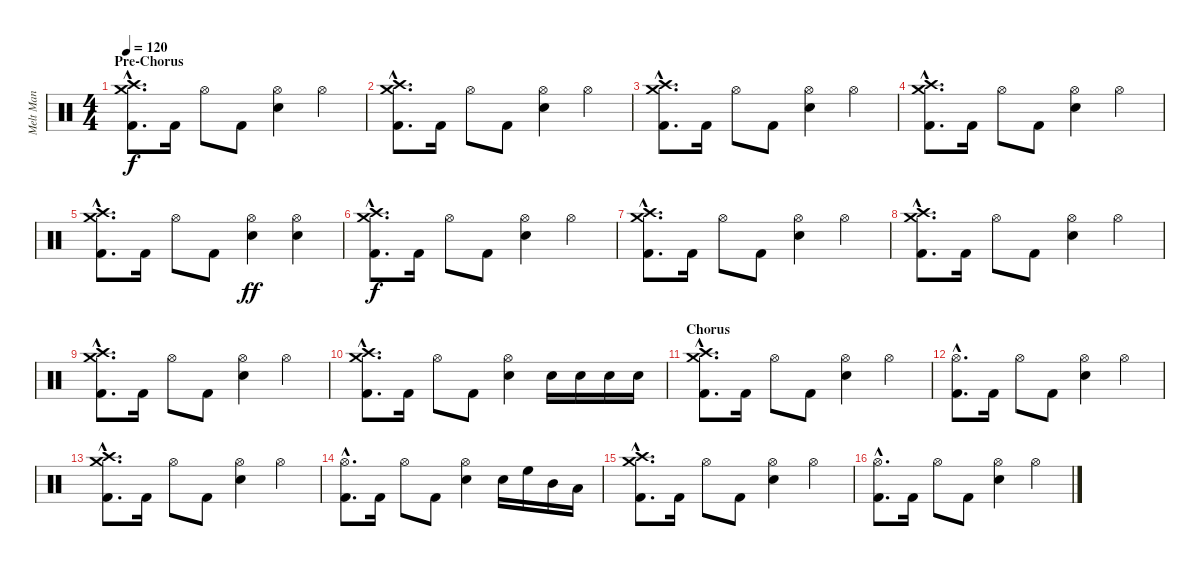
\track ("Melt Man" "Melt Man") {instrument percussion}
\staff {score}
\articulation defaults
\ts (4 4)
\section ("" "Pre-Chorus")
\tempo 120
\clef neutral
\ks c
("Crash medium (hit)"{hac} "Crash high (hit)"{hac} "Kick (hit) 2"{hac}).8{d dy f volume 13} "Kick (hit) 2".16 "Hi-Hat (open)".8 "Kick (hit) 2".8 ("Hi-Hat (open)" "Snare (hit) 2").4 "Hi-Hat (open)".4 |
("Crash medium (hit)"{hac} "Crash high (hit)"{hac} "Kick (hit) 2"{hac}).8{d} "Kick (hit) 2".16 "Hi-Hat (open)".8 "Kick (hit) 2".8 ("Hi-Hat (open)" "Snare (hit) 2").4 "Hi-Hat (open)".4 |
("Crash medium (hit)"{hac} "Crash high (hit)"{hac} "Kick (hit) 2"{hac}).8{d} "Kick (hit) 2".16 "Hi-Hat (open)".8 "Kick (hit) 2".8 ("Hi-Hat (open)" "Snare (hit) 2").4 "Hi-Hat (open)".4 |
("Crash medium (hit)"{hac} "Crash high (hit)"{hac} "Kick (hit) 2"{hac}).8{d} "Kick (hit) 2".16 "Hi-Hat (open)".8 "Kick (hit) 2".8 ("Hi-Hat (open)" "Snare (hit) 2").4 "Hi-Hat (open)".4 |
("Crash medium (hit)"{hac} "Crash high (hit)"{hac} "Kick (hit) 2"{hac}).8{d} "Kick (hit) 2".16 "Hi-Hat (open)".8 "Kick (hit) 2".8 ("Hi-Hat (open)" "Snare (hit) 2").4{dy ff} ("Hi-Hat (open)" "Snare (hit) 2").4 |
("Crash medium (hit)"{hac} "Crash high (hit)"{hac} "Kick (hit) 2"{hac}).8{d dy f} "Kick (hit) 2".16 "Hi-Hat (open)".8 "Kick (hit) 2".8 ("Hi-Hat (open)" "Snare (hit) 2").4 "Hi-Hat (open)".4 |
("Crash medium (hit)"{hac} "Crash high (hit)"{hac} "Kick (hit) 2"{hac}).8{d} "Kick (hit) 2".16 "Hi-Hat (open)".8 "Kick (hit) 2".8 ("Hi-Hat (open)" "Snare (hit) 2").4 "Hi-Hat (open)".4 |
("Crash medium (hit)"{hac} "Crash high (hit)"{hac} "Kick (hit) 2"{hac}).8{d} "Kick (hit) 2".16 "Hi-Hat (open)".8 "Kick (hit) 2".8 ("Hi-Hat (open)" "Snare (hit) 2").4 "Hi-Hat (open)".4 |
("Crash medium (hit)"{hac} "Crash high (hit)"{hac} "Kick (hit) 2"{hac}).8{d} "Kick (hit) 2".16 "Hi-Hat (open)".8 "Kick (hit) 2".8 ("Hi-Hat (open)" "Snare (hit) 2").4 "Hi-Hat (open)".4 |
("Crash medium (hit)"{hac} "Crash high (hit)"{hac} "Kick (hit) 2"{hac}).8{d} "Kick (hit) 2".16 "Hi-Hat (open)".8 "Kick (hit) 2".8 ("Hi-Hat (open)" "Snare (hit) 2").4 "Snare (hit) 2".16 "Snare (hit) 2".16 "Snare (hit) 2".16 "Snare (hit) 2".16 |
\section ("" "Chorus")
("Crash medium (hit)"{hac} "Crash high (hit)"{hac} "Kick (hit) 2"{hac}).8{d} "Kick (hit) 2".16 "Hi-Hat (open)".8 "Kick (hit) 2".8 ("Hi-Hat (open)" "Snare (hit) 2").4 "Hi-Hat (open)".4 |
("Hi-Hat (open)"{hac} "Kick (hit) 2"{hac}).8{d} "Kick (hit) 2".16 "Hi-Hat (open)".8 "Kick (hit) 2".8 ("Hi-Hat (open)" "Snare (hit) 2").4 "Hi-Hat (open)".4 |
("Crash medium (hit)"{hac} "Crash high (hit)"{hac} "Kick (hit) 2"{hac}).8{d} "Kick (hit) 2".16 "Hi-Hat (open)".8 "Kick (hit) 2".8 ("Hi-Hat (open)" "Snare (hit) 2").4 "Hi-Hat (open)".4 |
("Hi-Hat (open)"{hac} "Kick (hit) 2"{hac}).8{d} "Kick (hit) 2".16 "Hi-Hat (open)".8 "Kick (hit) 2".8 ("Hi-Hat (open)" "Snare (hit) 2").4 "Snare (hit) 2".16 "High Floor Tom (hit)".16 "Mid Tom (hit)".16 "Low Tom (hit)".16 |
("Crash medium (hit)"{hac} "Crash high (hit)"{hac} "Kick (hit) 2"{hac}).8{d} "Kick (hit) 2".16 "Hi-Hat (open)".8 "Kick (hit) 2".8 ("Hi-Hat (open)" "Snare (hit) 2").4 "Hi-Hat (open)".4 |
("Hi-Hat (open)"{hac} "Kick (hit) 2"{hac}).8{d} "Kick (hit) 2".16 "Hi-Hat (open)".8 "Kick (hit) 2".8 ("Hi-Hat (open)" "Snare (hit) 2").4 "Hi-Hat (open)".4
